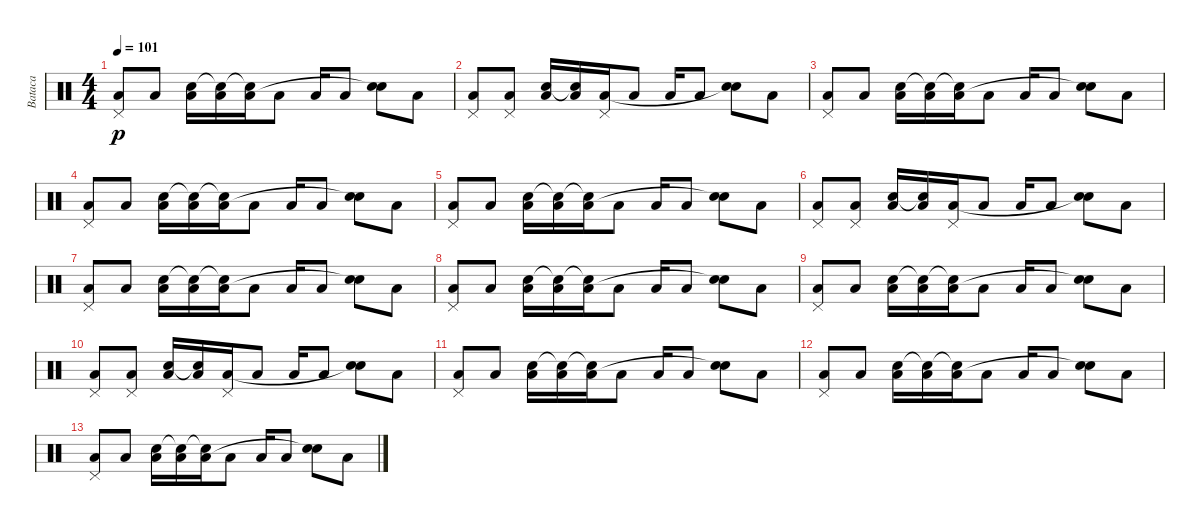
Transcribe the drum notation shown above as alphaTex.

\track ("Bataca" "Bataca") {instrument percussion}
\staff {score}
\articulation defaults
\ts (4 4)
\tempo 101
\clef neutral
\ks c
("Pedal Hi-Hat (hit)" "Low Tom (hit)").8{dy p} "Low Tom (hit)".8 ("Snare (hit) 2" "Low Floor Tom (hit)").16 ("Snare (hit)"{t} "Low Floor Tom (hit)").16 ("Snare (hit)"{t} "Low Tom (hit)").16 "Low Tom (hit)".8 "Low Floor Tom (hit)".16 "Low Floor Tom (hit)".8 ("Snare (hit) 2" "Snare (hit)"{t}).8 "Low Floor Tom (hit)".8 |
("Pedal Hi-Hat (hit)" "Low Tom (hit)").8 ("Pedal Hi-Hat (hit)" "Low Tom (hit)").8 ("Snare (hit) 2" "Low Floor Tom (hit)").16 ("Snare (hit)"{t} "Low Floor Tom (hit)").16 ("Pedal Hi-Hat (hit)" "Low Tom (hit)").16 "Low Tom (hit)".8 "Low Floor Tom (hit)".16 "Low Floor Tom (hit)".8 ("Snare (hit) 2" "Snare (hit)"{t}).8 "Low Floor Tom (hit)".8 |
("Pedal Hi-Hat (hit)" "Low Tom (hit)").8 "Low Tom (hit)".8 ("Snare (hit) 2" "Low Floor Tom (hit)").16 ("Snare (hit)"{t} "Low Floor Tom (hit)").16 ("Snare (hit)"{t} "Low Tom (hit)").16 "Low Tom (hit)".8 "Low Floor Tom (hit)".16 "Low Floor Tom (hit)".8 ("Snare (hit) 2" "Snare (hit)"{t}).8 "Low Floor Tom (hit)".8 |
("Pedal Hi-Hat (hit)" "Low Tom (hit)").8 "Low Tom (hit)".8 ("Snare (hit) 2" "Low Floor Tom (hit)").16 ("Snare (hit)"{t} "Low Floor Tom (hit)").16 ("Snare (hit)"{t} "Low Tom (hit)").16 "Low Tom (hit)".8 "Low Floor Tom (hit)".16 "Low Floor Tom (hit)".8 ("Snare (hit) 2" "Snare (hit)"{t}).8 "Low Floor Tom (hit)".8 |
("Pedal Hi-Hat (hit)" "Low Tom (hit)").8 "Low Tom (hit)".8 ("Snare (hit) 2" "Low Floor Tom (hit)").16 ("Snare (hit)"{t} "Low Floor Tom (hit)").16 ("Snare (hit)"{t} "Low Tom (hit)").16 "Low Tom (hit)".8 "Low Floor Tom (hit)".16 "Low Floor Tom (hit)".8 ("Snare (hit) 2" "Snare (hit)"{t}).8 "Low Floor Tom (hit)".8 |
("Pedal Hi-Hat (hit)" "Low Tom (hit)").8 ("Pedal Hi-Hat (hit)" "Low Tom (hit)").8 ("Snare (hit) 2" "Low Floor Tom (hit)").16 ("Snare (hit)"{t} "Low Floor Tom (hit)").16 ("Pedal Hi-Hat (hit)" "Low Tom (hit)").16 "Low Tom (hit)".8 "Low Floor Tom (hit)".16 "Low Floor Tom (hit)".8 ("Snare (hit) 2" "Snare (hit)"{t}).8 "Low Floor Tom (hit)".8 |
("Pedal Hi-Hat (hit)" "Low Tom (hit)").8 "Low Tom (hit)".8 ("Snare (hit) 2" "Low Floor Tom (hit)").16 ("Snare (hit)"{t} "Low Floor Tom (hit)").16 ("Snare (hit)"{t} "Low Tom (hit)").16 "Low Tom (hit)".8 "Low Floor Tom (hit)".16 "Low Floor Tom (hit)".8 ("Snare (hit) 2" "Snare (hit)"{t}).8 "Low Floor Tom (hit)".8 |
("Pedal Hi-Hat (hit)" "Low Tom (hit)").8 "Low Tom (hit)".8 ("Snare (hit) 2" "Low Floor Tom (hit)").16 ("Snare (hit)"{t} "Low Floor Tom (hit)").16 ("Snare (hit)"{t} "Low Tom (hit)").16 "Low Tom (hit)".8 "Low Floor Tom (hit)".16 "Low Floor Tom (hit)".8 ("Snare (hit) 2" "Snare (hit)"{t}).8 "Low Floor Tom (hit)".8 |
("Pedal Hi-Hat (hit)" "Low Tom (hit)").8 "Low Tom (hit)".8 ("Snare (hit) 2" "Low Floor Tom (hit)").16 ("Snare (hit)"{t} "Low Floor Tom (hit)").16 ("Snare (hit)"{t} "Low Tom (hit)").16 "Low Tom (hit)".8 "Low Floor Tom (hit)".16 "Low Floor Tom (hit)".8 ("Snare (hit) 2" "Snare (hit)"{t}).8 "Low Floor Tom (hit)".8 |
("Pedal Hi-Hat (hit)" "Low Tom (hit)").8 ("Pedal Hi-Hat (hit)" "Low Tom (hit)").8 ("Snare (hit) 2" "Low Floor Tom (hit)").16 ("Snare (hit)"{t} "Low Floor Tom (hit)").16 ("Pedal Hi-Hat (hit)" "Low Tom (hit)").16 "Low Tom (hit)".8 "Low Floor Tom (hit)".16 "Low Floor Tom (hit)".8 ("Snare (hit) 2" "Snare (hit)"{t}).8 "Low Floor Tom (hit)".8 |
("Pedal Hi-Hat (hit)" "Low Tom (hit)").8 "Low Tom (hit)".8 ("Snare (hit) 2" "Low Floor Tom (hit)").16 ("Snare (hit)"{t} "Low Floor Tom (hit)").16 ("Snare (hit)"{t} "Low Tom (hit)").16 "Low Tom (hit)".8 "Low Floor Tom (hit)".16 "Low Floor Tom (hit)".8 ("Snare (hit) 2" "Snare (hit)"{t}).8 "Low Floor Tom (hit)".8 |
("Pedal Hi-Hat (hit)" "Low Tom (hit)").8 "Low Tom (hit)".8 ("Snare (hit) 2" "Low Floor Tom (hit)").16 ("Snare (hit)"{t} "Low Floor Tom (hit)").16 ("Snare (hit)"{t} "Low Tom (hit)").16 "Low Tom (hit)".8 "Low Floor Tom (hit)".16 "Low Floor Tom (hit)".8 ("Snare (hit) 2" "Snare (hit)"{t}).8 "Low Floor Tom (hit)".8 |
("Pedal Hi-Hat (hit)" "Low Tom (hit)").8 "Low Tom (hit)".8 ("Snare (hit) 2" "Low Floor Tom (hit)").16 ("Snare (hit)"{t} "Low Floor Tom (hit)").16 ("Snare (hit)"{t} "Low Tom (hit)").16 "Low Tom (hit)".8 "Low Floor Tom (hit)".16 "Low Floor Tom (hit)".8 ("Snare (hit) 2" "Snare (hit)"{t}).8 "Low Floor Tom (hit)".8
